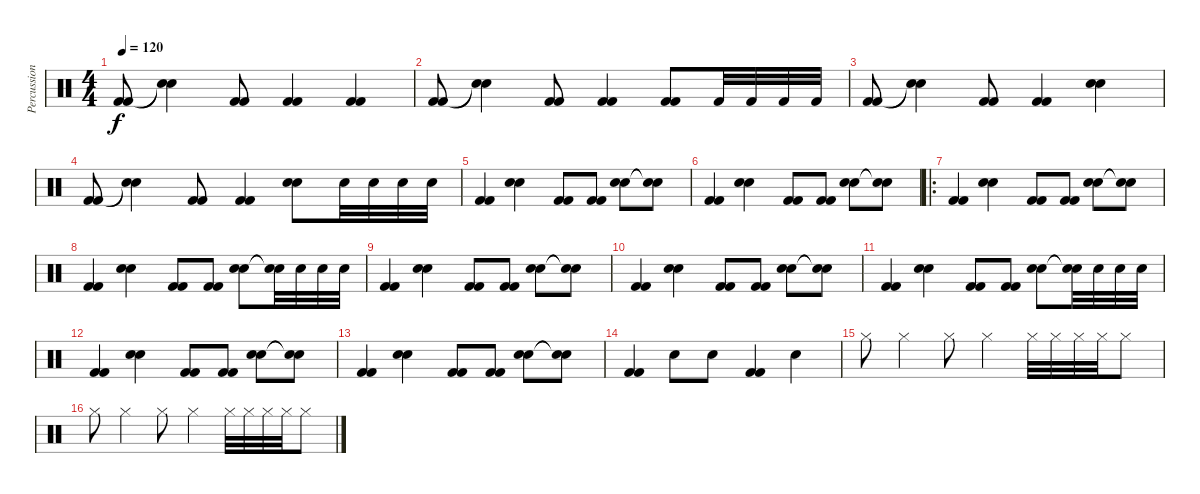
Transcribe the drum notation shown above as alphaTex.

\track ("Percussions" "Percussion") {instrument percussion}
\staff {score}
\articulation defaults
\ts (4 4)
\tempo 120
\clef neutral
\ks c
("Kick (hit) 2" "Kick (hit) 2").8{dy f} ("Snare (hit) 2"{t} "Snare (hit)"{t}).4 ("Kick (hit) 2" "Kick (hit) 2").8 ("Kick (hit) 2" "Kick (hit) 2").4 ("Kick (hit) 2" "Kick (hit) 2").4 |
("Kick (hit) 2" "Kick (hit) 2").8 ("Snare (hit) 2"{t} "Snare (hit)"{t}).4 ("Kick (hit) 2" "Kick (hit) 2").8 ("Kick (hit) 2" "Kick (hit) 2").4 ("Kick (hit) 2" "Kick (hit) 2").8 "Kick (hit) 2".32 "Kick (hit) 2".32 "Kick (hit) 2".32 "Kick (hit) 2".32 |
("Kick (hit) 2" "Kick (hit) 2").8 ("Snare (hit) 2"{t} "Snare (hit)"{t}).4 ("Kick (hit) 2" "Kick (hit) 2").8 ("Kick (hit) 2" "Kick (hit) 2").4 ("Snare (hit) 2" "Snare (hit) 2").4 |
("Kick (hit) 2" "Kick (hit) 2").8 ("Snare (hit) 2"{t} "Snare (hit)"{t}).4 ("Kick (hit) 2" "Kick (hit) 2").8 ("Kick (hit) 2" "Kick (hit) 2").4 ("Snare (hit) 2" "Snare (hit) 2").8 "Snare (hit) 2".32 "Snare (hit) 2".32 "Snare (hit) 2".32 "Snare (hit) 2".32 |
("Kick (hit) 2" "Kick (hit) 2").4 ("Snare (hit) 2" "Snare (hit) 2").4 ("Kick (hit) 2" "Kick (hit) 2").8 ("Kick (hit) 2" "Kick (hit) 2").8 ("Snare (hit) 2" "Snare (hit) 2").8 ("Snare (hit)"{t} "Snare (hit)"{t}).8 |
("Kick (hit) 2" "Kick (hit) 2").4 ("Snare (hit) 2" "Snare (hit) 2").4 ("Kick (hit) 2" "Kick (hit) 2").8 ("Kick (hit) 2" "Kick (hit) 2").8 ("Snare (hit) 2" "Snare (hit) 2").8 ("Snare (hit)"{t} "Snare (hit)"{t}).8 |
\ro
("Kick (hit) 2" "Kick (hit) 2").4 ("Snare (hit) 2" "Snare (hit) 2").4 ("Kick (hit) 2" "Kick (hit) 2").8 ("Kick (hit) 2" "Kick (hit) 2").8 ("Snare (hit) 2" "Snare (hit) 2").8 ("Snare (hit)"{t} "Snare (hit)"{t}).8 |
("Kick (hit) 2" "Kick (hit) 2").4 ("Snare (hit) 2" "Snare (hit) 2").4 ("Kick (hit) 2" "Kick (hit) 2").8 ("Kick (hit) 2" "Kick (hit) 2").8 ("Snare (hit) 2" "Snare (hit) 2").8 ("Snare (hit)"{t} "Snare (hit)"{t}).32 "Snare (hit) 2".32 "Snare (hit) 2".32 "Snare (hit) 2".32 |
("Kick (hit) 2" "Kick (hit) 2").4 ("Snare (hit) 2" "Snare (hit) 2").4 ("Kick (hit) 2" "Kick (hit) 2").8 ("Kick (hit) 2" "Kick (hit) 2").8 ("Snare (hit) 2" "Snare (hit) 2").8 ("Snare (hit)"{t} "Snare (hit)"{t}).8 |
("Kick (hit) 2" "Kick (hit) 2").4 ("Snare (hit) 2" "Snare (hit) 2").4 ("Kick (hit) 2" "Kick (hit) 2").8 ("Kick (hit) 2" "Kick (hit) 2").8 ("Snare (hit) 2" "Snare (hit) 2").8 ("Snare (hit)"{t} "Snare (hit)"{t}).8 |
("Kick (hit) 2" "Kick (hit) 2").4 ("Snare (hit) 2" "Snare (hit) 2").4 ("Kick (hit) 2" "Kick (hit) 2").8 ("Kick (hit) 2" "Kick (hit) 2").8 ("Snare (hit) 2" "Snare (hit) 2").8 ("Snare (hit)"{t} "Snare (hit)"{t}).32 "Snare (hit) 2".32 "Snare (hit) 2".32 "Snare (hit) 2".32 |
("Kick (hit) 2" "Kick (hit) 2").4 ("Snare (hit) 2" "Snare (hit) 2").4 ("Kick (hit) 2" "Kick (hit) 2").8 ("Kick (hit) 2" "Kick (hit) 2").8 ("Snare (hit) 2" "Snare (hit) 2").8 ("Snare (hit)"{t} "Snare (hit)"{t}).8 |
("Kick (hit) 2" "Kick (hit) 2").4 ("Snare (hit) 2" "Snare (hit) 2").4 ("Kick (hit) 2" "Kick (hit) 2").8 ("Kick (hit) 2" "Kick (hit) 2").8 ("Snare (hit) 2" "Snare (hit) 2").8 ("Snare (hit)"{t} "Snare (hit)"{t}).8 |
("Kick (hit) 2" "Kick (hit) 2").4 "Snare (hit) 2".8 "Snare (hit) 2".8 ("Kick (hit) 2" "Kick (hit) 2").4 "Snare (hit) 2".4 |
"Hi-Hat (closed)".8 "Hi-Hat (closed)".4 "Hi-Hat (closed)".8 "Hi-Hat (closed)".4 "Hi-Hat (closed)".32 "Hi-Hat (closed)".32 "Hi-Hat (closed)".32 "Hi-Hat (closed)".32 "Hi-Hat (closed)".8 |
"Hi-Hat (closed)".8 "Hi-Hat (closed)".4 "Hi-Hat (closed)".8 "Hi-Hat (closed)".4 "Hi-Hat (closed)".32 "Hi-Hat (closed)".32 "Hi-Hat (closed)".32 "Hi-Hat (closed)".32 "Hi-Hat (closed)".8
